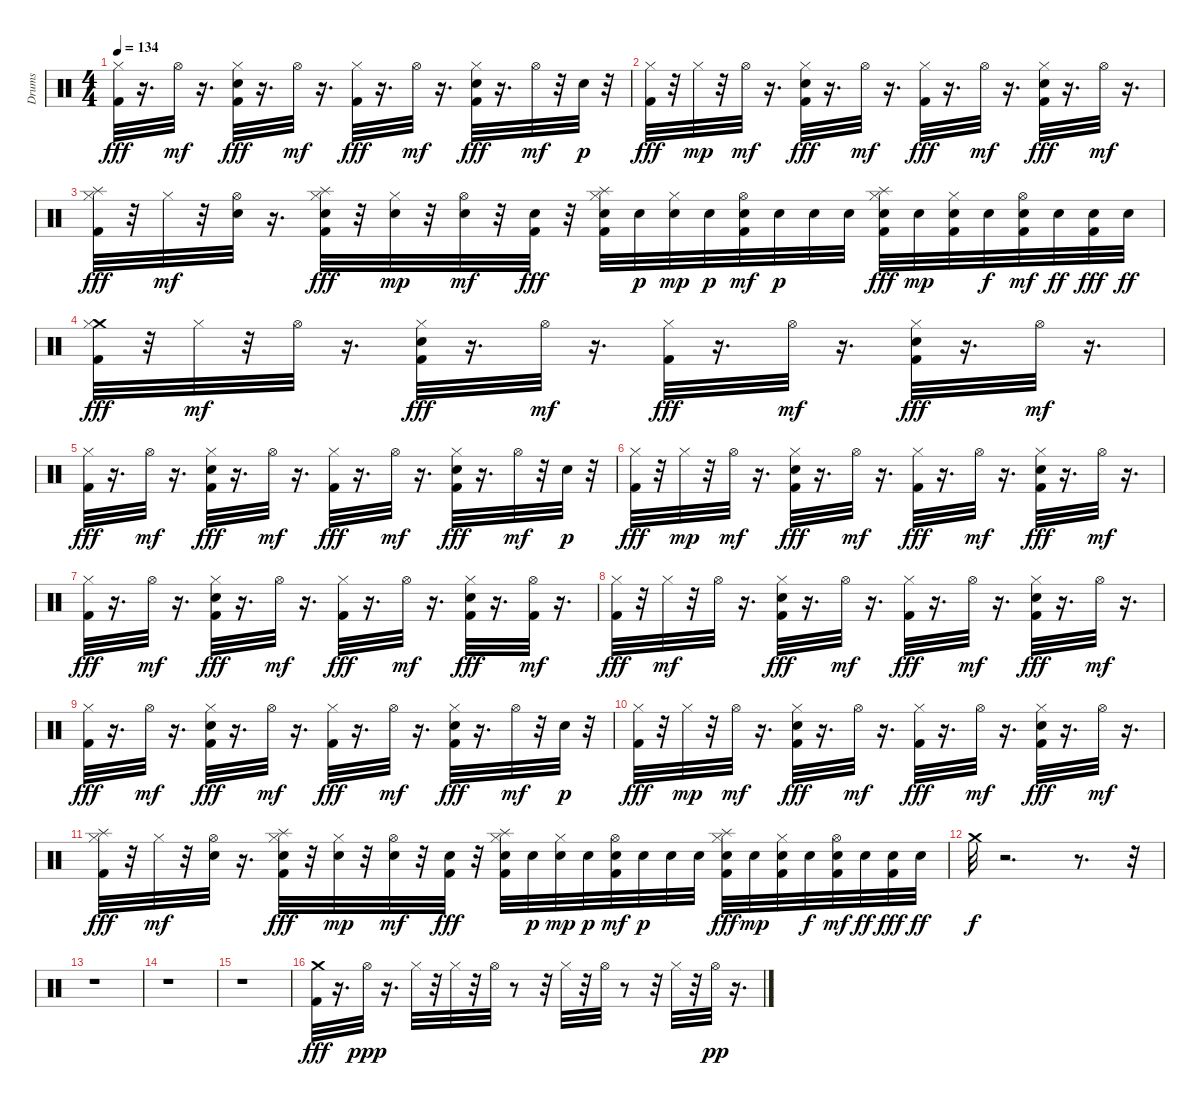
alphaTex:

\track ("Drums" "Drums") {instrument percussion}
\staff {score}
\articulation defaults
\ts (4 4)
\tempo 134
\clef neutral
\ks c
("Kick (hit) 2" "Hi-Hat (closed)").32{dy fff} r.16{d} "Hi-Hat (open)".32{dy mf} r.16{d} ("Electric Snare (hit)" "Kick (hit) 2" "Hi-Hat (closed)").32{dy fff} r.16{d} "Hi-Hat (open)".32{dy mf} r.16{d} ("Kick (hit) 2" "Hi-Hat (closed)").32{dy fff} r.16{d} "Hi-Hat (open)".32{dy mf} r.16{d} ("Electric Snare (hit)" "Kick (hit) 2" "Hi-Hat (closed)").32{dy fff} r.16{d} "Hi-Hat (open)".32{dy mf} r.32 "Electric Snare (hit)".32{dy p} r.32 |
("Kick (hit) 2" "Hi-Hat (closed)").32{dy fff} r.32 "Hi-Hat (closed)".32{dy mp} r.32 "Hi-Hat (open)".32{dy mf} r.16{d} ("Electric Snare (hit)" "Kick (hit) 2" "Hi-Hat (closed)").32{dy fff} r.16{d} "Hi-Hat (open)".32{dy mf} r.16{d} ("Kick (hit) 2" "Hi-Hat (closed)").32{dy fff} r.16{d} "Hi-Hat (open)".32{dy mf} r.16{d} ("Electric Snare (hit)" "Kick (hit) 2" "Hi-Hat (closed)").32{dy fff} r.16{d} "Hi-Hat (open)".32{dy mf} r.16{d} |
("Kick (hit) 2" "Hi-Hat (closed)" "Splash (hit)").32{dy fff} r.32 "Hi-Hat (closed)".32{dy mf} r.32 ("Electric Snare (hit)" "Hi-Hat (open)").32 r.16{d} ("Electric Snare (hit)" "Kick (hit) 2" "Hi-Hat (closed)" "Splash (hit)").32{dy fff} r.32 ("Electric Snare (hit)" "Hi-Hat (closed)").32{dy mp} r.32 ("Electric Snare (hit)" "Hi-Hat (open)").32{dy mf} r.32 ("Electric Snare (hit)" "Kick (hit) 2").32{dy fff} r.32 ("Electric Snare (hit)" "Kick (hit) 2" "Hi-Hat (closed)" "Splash (hit)").32 "Electric Snare (hit)".32{dy p} ("Electric Snare (hit)" "Hi-Hat (closed)").32{dy mp} "Electric Snare (hit)".32{dy p} ("Electric Snare (hit)" "Kick (hit) 2" "Hi-Hat (open)").32{dy mf} "Electric Snare (hit)".32{dy p} "Electric Snare (hit)".32 "Electric Snare (hit)".32 ("Electric Snare (hit)" "Kick (hit) 2" "Hi-Hat (closed)" "Splash (hit)").32{dy fff} "Electric Snare (hit)".32{dy mp} ("Electric Snare (hit)" "Kick (hit) 2" "Hi-Hat (closed)").32 "Electric Snare (hit)".32{dy f} ("Electric Snare (hit)" "Kick (hit) 2" "Hi-Hat (open)").32{dy mf} "Electric Snare (hit)".32{dy ff} ("Electric Snare (hit)" "Kick (hit) 2").32{dy fff} "Electric Snare (hit)".32{dy ff} |
("Crash medium (hit)" "Kick (hit) 2" "Hi-Hat (closed)").32{dy fff} r.32 "Hi-Hat (closed)".32{dy mf} r.32 "Hi-Hat (open)".32 r.16{d} ("Electric Snare (hit)" "Kick (hit) 2" "Hi-Hat (closed)").32{dy fff} r.16{d} "Hi-Hat (open)".32{dy mf} r.16{d} ("Kick (hit) 2" "Hi-Hat (closed)").32{dy fff} r.16{d} "Hi-Hat (open)".32{dy mf} r.16{d} ("Electric Snare (hit)" "Kick (hit) 2" "Hi-Hat (closed)").32{dy fff} r.16{d} "Hi-Hat (open)".32{dy mf} r.16{d} |
("Kick (hit) 2" "Hi-Hat (closed)").32{dy fff} r.16{d} "Hi-Hat (open)".32{dy mf} r.16{d} ("Electric Snare (hit)" "Kick (hit) 2" "Hi-Hat (closed)").32{dy fff} r.16{d} "Hi-Hat (open)".32{dy mf} r.16{d} ("Kick (hit) 2" "Hi-Hat (closed)").32{dy fff} r.16{d} "Hi-Hat (open)".32{dy mf} r.16{d} ("Electric Snare (hit)" "Kick (hit) 2" "Hi-Hat (closed)").32{dy fff} r.16{d} "Hi-Hat (open)".32{dy mf} r.32 "Electric Snare (hit)".32{dy p} r.32 |
("Kick (hit) 2" "Hi-Hat (closed)").32{dy fff} r.32 "Hi-Hat (closed)".32{dy mp} r.32 "Hi-Hat (open)".32{dy mf} r.16{d} ("Electric Snare (hit)" "Kick (hit) 2" "Hi-Hat (closed)").32{dy fff} r.16{d} "Hi-Hat (open)".32{dy mf} r.16{d} ("Kick (hit) 2" "Hi-Hat (closed)").32{dy fff} r.16{d} "Hi-Hat (open)".32{dy mf} r.16{d} ("Electric Snare (hit)" "Kick (hit) 2" "Hi-Hat (closed)").32{dy fff} r.16{d} "Hi-Hat (open)".32{dy mf} r.16{d} |
("Kick (hit) 2" "Hi-Hat (closed)").32{dy fff} r.16{d} "Hi-Hat (open)".32{dy mf} r.16{d} ("Electric Snare (hit)" "Kick (hit) 2" "Hi-Hat (closed)").32{dy fff} r.16{d} "Hi-Hat (open)".32{dy mf} r.16{d} ("Kick (hit) 2" "Hi-Hat (closed)").32{dy fff} r.16{d} "Hi-Hat (open)".32{dy mf} r.16{d} ("Electric Snare (hit)" "Kick (hit) 2" "Hi-Hat (closed)").32{dy fff} r.16{d} ("Kick (hit) 2" "Hi-Hat (open)").32{dy mf} r.16{d} |
("Kick (hit) 2" "Hi-Hat (closed)").32{dy fff} r.32 "Hi-Hat (closed)".32{dy mf} r.32 "Hi-Hat (open)".32 r.16{d} ("Electric Snare (hit)" "Kick (hit) 2" "Hi-Hat (closed)").32{dy fff} r.16{d} "Hi-Hat (open)".32{dy mf} r.16{d} ("Kick (hit) 2" "Hi-Hat (closed)").32{dy fff} r.16{d} "Hi-Hat (open)".32{dy mf} r.16{d} ("Electric Snare (hit)" "Kick (hit) 2" "Hi-Hat (closed)").32{dy fff} r.16{d} "Hi-Hat (open)".32{dy mf} r.16{d} |
("Kick (hit) 2" "Hi-Hat (closed)").32{dy fff} r.16{d} "Hi-Hat (open)".32{dy mf} r.16{d} ("Electric Snare (hit)" "Kick (hit) 2" "Hi-Hat (closed)").32{dy fff} r.16{d} "Hi-Hat (open)".32{dy mf} r.16{d} ("Kick (hit) 2" "Hi-Hat (closed)").32{dy fff} r.16{d} "Hi-Hat (open)".32{dy mf} r.16{d} ("Electric Snare (hit)" "Kick (hit) 2" "Hi-Hat (closed)").32{dy fff} r.16{d} "Hi-Hat (open)".32{dy mf} r.32 "Electric Snare (hit)".32{dy p} r.32 |
("Kick (hit) 2" "Hi-Hat (closed)").32{dy fff} r.32 "Hi-Hat (closed)".32{dy mp} r.32 "Hi-Hat (open)".32{dy mf} r.16{d} ("Electric Snare (hit)" "Kick (hit) 2" "Hi-Hat (closed)").32{dy fff} r.16{d} "Hi-Hat (open)".32{dy mf} r.16{d} ("Kick (hit) 2" "Hi-Hat (closed)").32{dy fff} r.16{d} "Hi-Hat (open)".32{dy mf} r.16{d} ("Electric Snare (hit)" "Kick (hit) 2" "Hi-Hat (closed)").32{dy fff} r.16{d} "Hi-Hat (open)".32{dy mf} r.16{d} |
("Kick (hit) 2" "Hi-Hat (closed)" "Splash (hit)").32{dy fff} r.32 "Hi-Hat (closed)".32{dy mf} r.32 ("Electric Snare (hit)" "Hi-Hat (open)").32 r.16{d} ("Electric Snare (hit)" "Kick (hit) 2" "Hi-Hat (closed)" "Splash (hit)").32{dy fff} r.32 ("Electric Snare (hit)" "Hi-Hat (closed)").32{dy mp} r.32 ("Electric Snare (hit)" "Hi-Hat (open)").32{dy mf} r.32 ("Electric Snare (hit)" "Kick (hit) 2").32{dy fff} r.32 ("Electric Snare (hit)" "Kick (hit) 2" "Hi-Hat (closed)" "Splash (hit)").32 "Electric Snare (hit)".32{dy p} ("Electric Snare (hit)" "Hi-Hat (closed)").32{dy mp} "Electric Snare (hit)".32{dy p} ("Electric Snare (hit)" "Kick (hit) 2" "Hi-Hat (open)").32{dy mf} "Electric Snare (hit)".32{dy p} "Electric Snare (hit)".32 "Electric Snare (hit)".32 ("Electric Snare (hit)" "Kick (hit) 2" "Hi-Hat (closed)" "Splash (hit)").32{dy fff} "Electric Snare (hit)".32{dy mp} ("Electric Snare (hit)" "Kick (hit) 2" "Hi-Hat (closed)").32 "Electric Snare (hit)".32{dy f} ("Electric Snare (hit)" "Kick (hit) 2" "Hi-Hat (open)").32{dy mf} "Electric Snare (hit)".32{dy ff} ("Electric Snare (hit)" "Kick (hit) 2").32{dy fff} "Electric Snare (hit)".32{dy ff} |
"Crash medium (hit)".32{dy f} r.2{d} r.8{d} r.32 |
r.1 |
r.1 |
r.1 |
("Kick (hit) 2" "Crash medium (hit)").32{dy fff} r.16{d} "Hi-Hat (open)".32{dy ppp} r.16{d} "Hi-Hat (closed)".32 r.32 "Hi-Hat (closed)".32 r.32 "Hi-Hat (open)".32 r.8 r.32 "Hi-Hat (closed)".32 r.32 "Hi-Hat (open)".32 r.8 r.32 "Hi-Hat (closed)".32 r.32 "Hi-Hat (open)".32{dy pp} r.16{d}
